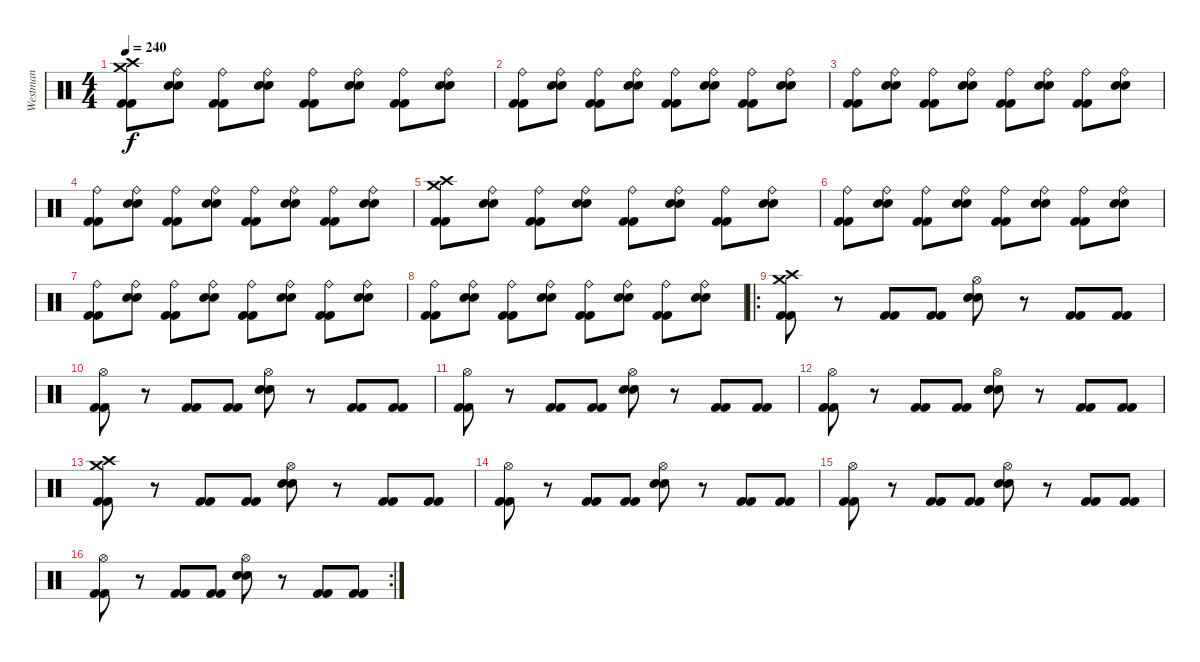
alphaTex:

\track ("Westman" "Westman") {instrument percussion}
\staff {score}
\articulation defaults
\ts (4 4)
\tempo 240
\clef neutral
\ks c
("Kick (hit) 2" "Kick (hit) 2" "Crash high (hit)" "Crash medium (hit)").8{dy f} ("Electric Snare (hit)" "Snare (hit) 2" "Ride (bell)").8 ("Kick (hit) 2" "Kick (hit) 2" "Ride (bell)").8 ("Electric Snare (hit)" "Snare (hit) 2" "Ride (bell)").8 ("Kick (hit) 2" "Kick (hit) 2" "Ride (bell)").8 ("Electric Snare (hit)" "Snare (hit) 2" "Ride (bell)").8 ("Kick (hit) 2" "Kick (hit) 2" "Ride (bell)").8 ("Electric Snare (hit)" "Snare (hit) 2" "Ride (bell)").8 |
("Kick (hit) 2" "Kick (hit) 2" "Ride (bell)").8 ("Electric Snare (hit)" "Snare (hit) 2" "Ride (bell)").8 ("Kick (hit) 2" "Kick (hit) 2" "Ride (bell)").8 ("Electric Snare (hit)" "Snare (hit) 2" "Ride (bell)").8 ("Kick (hit) 2" "Kick (hit) 2" "Ride (bell)").8 ("Electric Snare (hit)" "Snare (hit) 2" "Ride (bell)").8 ("Kick (hit) 2" "Kick (hit) 2" "Ride (bell)").8 ("Electric Snare (hit)" "Snare (hit) 2" "Ride (bell)").8 |
("Kick (hit) 2" "Kick (hit) 2" "Ride (bell)").8 ("Electric Snare (hit)" "Snare (hit) 2" "Ride (bell)").8 ("Kick (hit) 2" "Kick (hit) 2" "Ride (bell)").8 ("Electric Snare (hit)" "Snare (hit) 2" "Ride (bell)").8 ("Kick (hit) 2" "Kick (hit) 2" "Ride (bell)").8 ("Electric Snare (hit)" "Snare (hit) 2" "Ride (bell)").8 ("Kick (hit) 2" "Kick (hit) 2" "Ride (bell)").8 ("Electric Snare (hit)" "Snare (hit) 2" "Ride (bell)").8 |
("Kick (hit) 2" "Kick (hit) 2" "Ride (bell)").8 ("Electric Snare (hit)" "Snare (hit) 2" "Ride (bell)").8 ("Kick (hit) 2" "Kick (hit) 2" "Ride (bell)").8 ("Electric Snare (hit)" "Snare (hit) 2" "Ride (bell)").8 ("Kick (hit) 2" "Kick (hit) 2" "Ride (bell)").8 ("Electric Snare (hit)" "Snare (hit) 2" "Ride (bell)").8 ("Kick (hit) 2" "Kick (hit) 2" "Ride (bell)").8 ("Electric Snare (hit)" "Snare (hit) 2" "Ride (bell)").8 |
("Kick (hit) 2" "Kick (hit) 2" "Crash high (hit)" "Crash medium (hit)").8 ("Electric Snare (hit)" "Snare (hit) 2" "Ride (bell)").8 ("Kick (hit) 2" "Kick (hit) 2" "Ride (bell)").8 ("Electric Snare (hit)" "Snare (hit) 2" "Ride (bell)").8 ("Kick (hit) 2" "Kick (hit) 2" "Ride (bell)").8 ("Electric Snare (hit)" "Snare (hit) 2" "Ride (bell)").8 ("Kick (hit) 2" "Kick (hit) 2" "Ride (bell)").8 ("Electric Snare (hit)" "Snare (hit) 2" "Ride (bell)").8 |
("Kick (hit) 2" "Kick (hit) 2" "Ride (bell)").8 ("Electric Snare (hit)" "Snare (hit) 2" "Ride (bell)").8 ("Kick (hit) 2" "Kick (hit) 2" "Ride (bell)").8 ("Electric Snare (hit)" "Snare (hit) 2" "Ride (bell)").8 ("Kick (hit) 2" "Kick (hit) 2" "Ride (bell)").8 ("Electric Snare (hit)" "Snare (hit) 2" "Ride (bell)").8 ("Kick (hit) 2" "Kick (hit) 2" "Ride (bell)").8 ("Electric Snare (hit)" "Snare (hit) 2" "Ride (bell)").8 |
("Kick (hit) 2" "Kick (hit) 2" "Ride (bell)").8 ("Electric Snare (hit)" "Snare (hit) 2" "Ride (bell)").8 ("Kick (hit) 2" "Kick (hit) 2" "Ride (bell)").8 ("Electric Snare (hit)" "Snare (hit) 2" "Ride (bell)").8 ("Kick (hit) 2" "Kick (hit) 2" "Ride (bell)").8 ("Electric Snare (hit)" "Snare (hit) 2" "Ride (bell)").8 ("Kick (hit) 2" "Kick (hit) 2" "Ride (bell)").8 ("Electric Snare (hit)" "Snare (hit) 2" "Ride (bell)").8 |
("Kick (hit) 2" "Kick (hit) 2" "Ride (bell)").8 ("Electric Snare (hit)" "Snare (hit) 2" "Ride (bell)").8 ("Kick (hit) 2" "Kick (hit) 2" "Ride (bell)").8 ("Electric Snare (hit)" "Snare (hit) 2" "Ride (bell)").8 ("Kick (hit) 2" "Kick (hit) 2" "Ride (bell)").8 ("Electric Snare (hit)" "Snare (hit) 2" "Ride (bell)").8 ("Kick (hit) 2" "Kick (hit) 2" "Ride (bell)").8 ("Electric Snare (hit)" "Snare (hit) 2" "Ride (bell)").8 |
\ro
("Kick (hit) 2" "Kick (hit) 2" "Crash high (hit)" "Crash medium (hit)").8 r.8 ("Kick (hit) 2" "Kick (hit) 2").8 ("Kick (hit) 2" "Kick (hit) 2").8 ("Snare (hit) 2" "Electric Snare (hit)" "Hi-Hat (open)").8 r.8 ("Kick (hit) 2" "Kick (hit) 2").8 ("Kick (hit) 2" "Kick (hit) 2").8 |
("Kick (hit) 2" "Kick (hit) 2" "Hi-Hat (open)").8 r.8 ("Kick (hit) 2" "Kick (hit) 2").8 ("Kick (hit) 2" "Kick (hit) 2").8 ("Snare (hit) 2" "Electric Snare (hit)" "Hi-Hat (open)").8 r.8 ("Kick (hit) 2" "Kick (hit) 2").8 ("Kick (hit) 2" "Kick (hit) 2").8 |
("Kick (hit) 2" "Kick (hit) 2" "Hi-Hat (open)").8 r.8 ("Kick (hit) 2" "Kick (hit) 2").8 ("Kick (hit) 2" "Kick (hit) 2").8 ("Snare (hit) 2" "Electric Snare (hit)" "Hi-Hat (open)").8 r.8 ("Kick (hit) 2" "Kick (hit) 2").8 ("Kick (hit) 2" "Kick (hit) 2").8 |
("Kick (hit) 2" "Kick (hit) 2" "Hi-Hat (open)").8 r.8 ("Kick (hit) 2" "Kick (hit) 2").8 ("Kick (hit) 2" "Kick (hit) 2").8 ("Snare (hit) 2" "Electric Snare (hit)" "Hi-Hat (open)").8 r.8 ("Kick (hit) 2" "Kick (hit) 2").8 ("Kick (hit) 2" "Kick (hit) 2").8 |
("Kick (hit) 2" "Kick (hit) 2" "Crash high (hit)" "Crash medium (hit)").8 r.8 ("Kick (hit) 2" "Kick (hit) 2").8 ("Kick (hit) 2" "Kick (hit) 2").8 ("Snare (hit) 2" "Electric Snare (hit)" "Hi-Hat (open)").8 r.8 ("Kick (hit) 2" "Kick (hit) 2").8 ("Kick (hit) 2" "Kick (hit) 2").8 |
("Kick (hit) 2" "Kick (hit) 2" "Hi-Hat (open)").8 r.8 ("Kick (hit) 2" "Kick (hit) 2").8 ("Kick (hit) 2" "Kick (hit) 2").8 ("Snare (hit) 2" "Electric Snare (hit)" "Hi-Hat (open)").8 r.8 ("Kick (hit) 2" "Kick (hit) 2").8 ("Kick (hit) 2" "Kick (hit) 2").8 |
("Kick (hit) 2" "Kick (hit) 2" "Hi-Hat (open)").8 r.8 ("Kick (hit) 2" "Kick (hit) 2").8 ("Kick (hit) 2" "Kick (hit) 2").8 ("Snare (hit) 2" "Electric Snare (hit)" "Hi-Hat (open)").8 r.8 ("Kick (hit) 2" "Kick (hit) 2").8 ("Kick (hit) 2" "Kick (hit) 2").8 |
\rc 2
("Kick (hit) 2" "Kick (hit) 2" "Hi-Hat (open)").8 r.8 ("Kick (hit) 2" "Kick (hit) 2").8 ("Kick (hit) 2" "Kick (hit) 2").8 ("Snare (hit) 2" "Electric Snare (hit)" "Hi-Hat (open)").8 r.8 ("Kick (hit) 2" "Kick (hit) 2").8 ("Kick (hit) 2" "Kick (hit) 2").8
